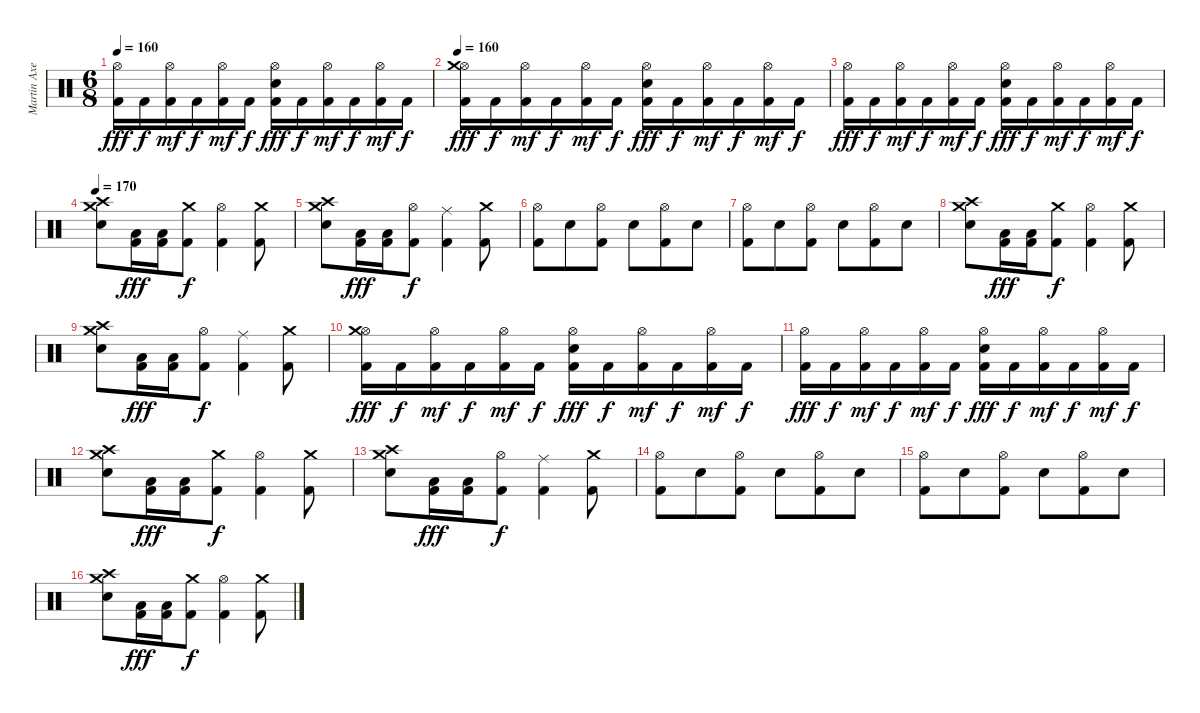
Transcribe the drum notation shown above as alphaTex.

\track ("Martin Axenrot" "Martin Axe") {instrument percussion}
\staff
\articulation defaults
\ts (6 8)
\tempo 160
\clef neutral
\ks c
("Hi-Hat (open)" "Kick (hit) 2").16{dy fff} "Kick (hit) 2".16{dy f} ("Hi-Hat (open)" "Kick (hit) 2").16{dy mf} "Kick (hit) 2".16{dy f} ("Hi-Hat (open)" "Kick (hit) 2").16{dy mf} "Kick (hit) 2".16{dy f} ("Hi-Hat (open)" "Snare (hit) 2" "Kick (hit) 2").16{dy fff} "Kick (hit) 2".16{dy f} ("Hi-Hat (open)" "Kick (hit) 2").16{dy mf} "Kick (hit) 2".16{dy f} ("Hi-Hat (open)" "Kick (hit) 2").16{dy mf} "Kick (hit) 2".16{dy f} |
\tempo 160
("Hi-Hat (open)" "Crash medium (hit)" "Kick (hit) 2").16{dy fff} "Kick (hit) 2".16{dy f} ("Hi-Hat (open)" "Kick (hit) 2").16{dy mf} "Kick (hit) 2".16{dy f} ("Hi-Hat (open)" "Kick (hit) 2").16{dy mf} "Kick (hit) 2".16{dy f} ("Hi-Hat (open)" "Snare (hit) 2" "Kick (hit) 2").16{dy fff} "Kick (hit) 2".16{dy f} ("Hi-Hat (open)" "Kick (hit) 2").16{dy mf} "Kick (hit) 2".16{dy f} ("Hi-Hat (open)" "Kick (hit) 2").16{dy mf} "Kick (hit) 2".16{dy f} |
("Hi-Hat (open)" "Kick (hit) 2").16{dy fff} "Kick (hit) 2".16{dy f} ("Hi-Hat (open)" "Kick (hit) 2").16{dy mf} "Kick (hit) 2".16{dy f} ("Hi-Hat (open)" "Kick (hit) 2").16{dy mf} "Kick (hit) 2".16{dy f} ("Hi-Hat (open)" "Snare (hit) 2" "Kick (hit) 2").16{dy fff} "Kick (hit) 2".16{dy f} ("Hi-Hat (open)" "Kick (hit) 2").16{dy mf} "Kick (hit) 2".16{dy f} ("Hi-Hat (open)" "Kick (hit) 2").16{dy mf} "Kick (hit) 2".16{dy f} |
\tempo 170
("Crash high (hit)" "Crash medium (hit)" "Snare (hit) 2").8 ("Low Tom (hit)" "Kick (hit) 2").16{dy fff} ("Low Tom (hit)" "Kick (hit) 2").16 ("Crash medium (hit)" "Kick (hit) 2").8{dy f} ("Hi-Hat (open)" "Kick (hit) 2").4 ("Crash medium (hit)" "Kick (hit) 2").8 |
("Crash high (hit)" "Crash medium (hit)" "Snare (hit) 2").8 ("Low Tom (hit)" "Kick (hit) 2").16{dy fff} ("Low Tom (hit)" "Kick (hit) 2").16 ("Hi-Hat (open)" "Kick (hit) 2").8{dy f} ("Ride (middle)" "Kick (hit) 2").4 ("Crash medium (hit)" "Kick (hit) 2").8 |
("Hi-Hat (open)" "Kick (hit) 2").8 "Snare (hit) 2".8 ("Hi-Hat (open)" "Kick (hit) 2").8 "Snare (hit) 2".8 ("Hi-Hat (open)" "Kick (hit) 2").8 "Snare (hit) 2".8 |
("Hi-Hat (open)" "Kick (hit) 2").8 "Snare (hit) 2".8 ("Hi-Hat (open)" "Kick (hit) 2").8 "Snare (hit) 2".8 ("Hi-Hat (open)" "Kick (hit) 2").8 "Snare (hit) 2".8 |
("Crash high (hit)" "Crash medium (hit)" "Snare (hit) 2").8 ("Low Tom (hit)" "Kick (hit) 2").16{dy fff} ("Low Tom (hit)" "Kick (hit) 2").16 ("Crash medium (hit)" "Kick (hit) 2").8{dy f} ("Hi-Hat (open)" "Kick (hit) 2").4 ("Crash medium (hit)" "Kick (hit) 2").8 |
("Crash high (hit)" "Crash medium (hit)" "Snare (hit) 2").8 ("Low Tom (hit)" "Kick (hit) 2").16{dy fff} ("Low Tom (hit)" "Kick (hit) 2").16 ("Hi-Hat (open)" "Kick (hit) 2").8{dy f} ("Ride (middle)" "Kick (hit) 2").4 ("Crash medium (hit)" "Kick (hit) 2").8 |
("Hi-Hat (open)" "Crash medium (hit)" "Kick (hit) 2").16{dy fff} "Kick (hit) 2".16{dy f} ("Hi-Hat (open)" "Kick (hit) 2").16{dy mf} "Kick (hit) 2".16{dy f} ("Hi-Hat (open)" "Kick (hit) 2").16{dy mf} "Kick (hit) 2".16{dy f} ("Hi-Hat (open)" "Snare (hit) 2" "Kick (hit) 2").16{dy fff} "Kick (hit) 2".16{dy f} ("Hi-Hat (open)" "Kick (hit) 2").16{dy mf} "Kick (hit) 2".16{dy f} ("Hi-Hat (open)" "Kick (hit) 2").16{dy mf} "Kick (hit) 2".16{dy f} |
("Hi-Hat (open)" "Kick (hit) 2").16{dy fff} "Kick (hit) 2".16{dy f} ("Hi-Hat (open)" "Kick (hit) 2").16{dy mf} "Kick (hit) 2".16{dy f} ("Hi-Hat (open)" "Kick (hit) 2").16{dy mf} "Kick (hit) 2".16{dy f} ("Hi-Hat (open)" "Snare (hit) 2" "Kick (hit) 2").16{dy fff} "Kick (hit) 2".16{dy f} ("Hi-Hat (open)" "Kick (hit) 2").16{dy mf} "Kick (hit) 2".16{dy f} ("Hi-Hat (open)" "Kick (hit) 2").16{dy mf} "Kick (hit) 2".16{dy f} |
("Crash high (hit)" "Crash medium (hit)" "Snare (hit) 2").8 ("Low Tom (hit)" "Kick (hit) 2").16{dy fff} ("Low Tom (hit)" "Kick (hit) 2").16 ("Crash medium (hit)" "Kick (hit) 2").8{dy f} ("Hi-Hat (open)" "Kick (hit) 2").4 ("Crash medium (hit)" "Kick (hit) 2").8 |
("Crash high (hit)" "Crash medium (hit)" "Snare (hit) 2").8 ("Low Tom (hit)" "Kick (hit) 2").16{dy fff} ("Low Tom (hit)" "Kick (hit) 2").16 ("Hi-Hat (open)" "Kick (hit) 2").8{dy f} ("Ride (middle)" "Kick (hit) 2").4 ("Crash medium (hit)" "Kick (hit) 2").8 |
("Hi-Hat (open)" "Kick (hit) 2").8 "Snare (hit) 2".8 ("Hi-Hat (open)" "Kick (hit) 2").8 "Snare (hit) 2".8 ("Hi-Hat (open)" "Kick (hit) 2").8 "Snare (hit) 2".8 |
("Hi-Hat (open)" "Kick (hit) 2").8 "Snare (hit) 2".8 ("Hi-Hat (open)" "Kick (hit) 2").8 "Snare (hit) 2".8 ("Hi-Hat (open)" "Kick (hit) 2").8 "Snare (hit) 2".8 |
("Crash high (hit)" "Crash medium (hit)" "Snare (hit) 2").8 ("Low Tom (hit)" "Kick (hit) 2").16{dy fff} ("Low Tom (hit)" "Kick (hit) 2").16 ("Crash medium (hit)" "Kick (hit) 2").8{dy f} ("Hi-Hat (open)" "Kick (hit) 2").4 ("Crash medium (hit)" "Kick (hit) 2").8
